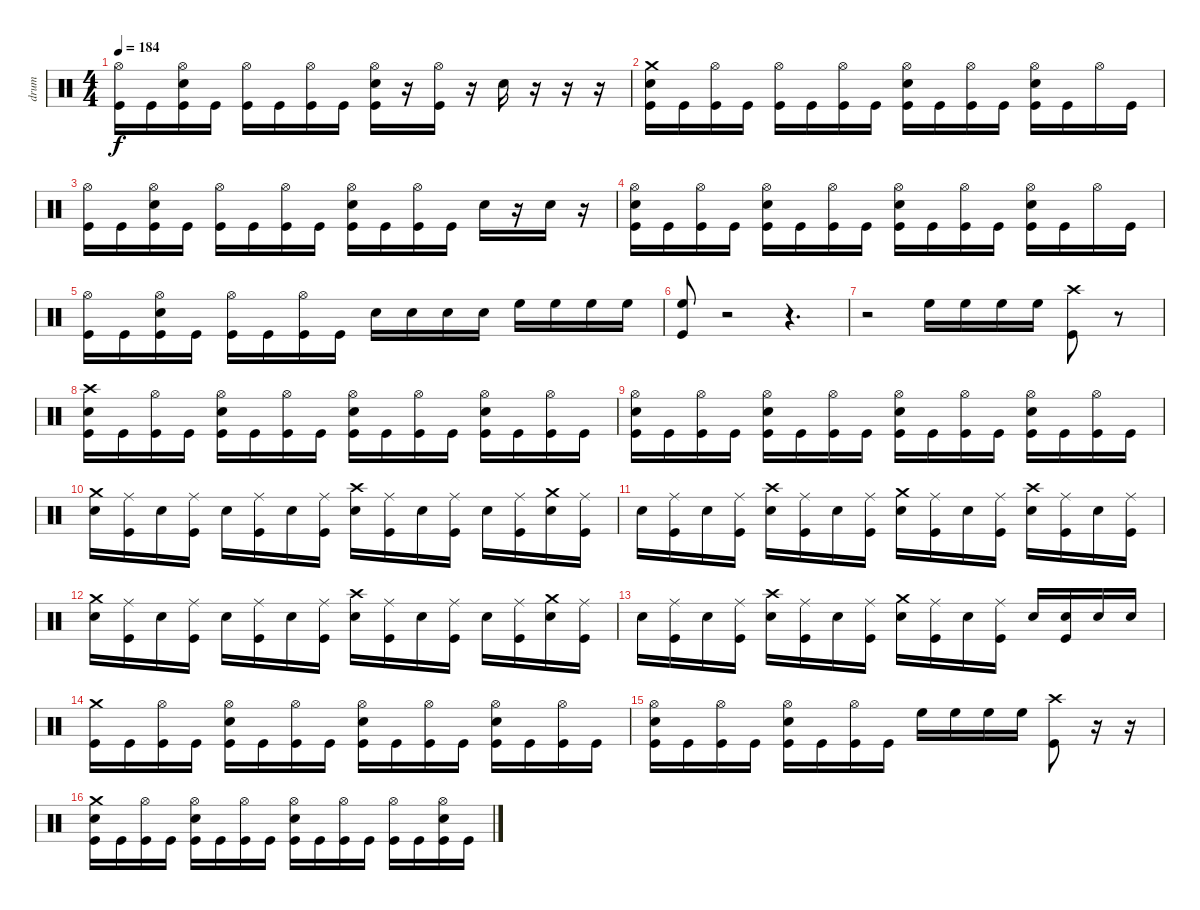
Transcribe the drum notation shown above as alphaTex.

\track ("drum" "drum") {instrument percussion}
\staff {score}
\articulation defaults
\ts (4 4)
\tempo 184
\clef neutral
\ks c
("Hi-Hat (open)" "Kick (hit)").16{dy f} "Kick (hit)".16 ("Hi-Hat (open)" "Electric Snare (hit)" "Kick (hit)").16 "Kick (hit)".16 ("Hi-Hat (open)" "Kick (hit)").16 "Kick (hit)".16 ("Hi-Hat (open)" "Kick (hit)").16 "Kick (hit)".16 ("Hi-Hat (open)" "Electric Snare (hit)" "Kick (hit)").16 r.16 ("Hi-Hat (open)" "Kick (hit)").16 r.16 "Electric Snare (hit)".16 r.16 r.16 r.16 |
("Crash medium (hit)" "Electric Snare (hit)" "Kick (hit)").16 "Kick (hit)".16 ("Hi-Hat (open)" "Kick (hit)").16 "Kick (hit)".16 ("Hi-Hat (open)" "Kick (hit)").16 "Kick (hit)".16 ("Hi-Hat (open)" "Kick (hit)").16 "Kick (hit)".16 ("Hi-Hat (open)" "Electric Snare (hit)" "Kick (hit)").16 "Kick (hit)".16 ("Hi-Hat (open)" "Kick (hit)").16 "Kick (hit)".16 ("Hi-Hat (open)" "Electric Snare (hit)" "Kick (hit)").16 "Kick (hit)".16 "Hi-Hat (open)".16 "Kick (hit)".16 |
("Hi-Hat (open)" "Kick (hit)").16 "Kick (hit)".16 ("Hi-Hat (open)" "Electric Snare (hit)" "Kick (hit)").16 "Kick (hit)".16 ("Hi-Hat (open)" "Kick (hit)").16 "Kick (hit)".16 ("Hi-Hat (open)" "Kick (hit)").16 "Kick (hit)".16 ("Hi-Hat (open)" "Electric Snare (hit)" "Kick (hit)").16 "Kick (hit)".16 ("Hi-Hat (open)" "Kick (hit)").16 "Kick (hit)".16 "Electric Snare (hit)".16 r.16 "Electric Snare (hit)".16 r.16 |
("Hi-Hat (open)" "Electric Snare (hit)" "Kick (hit)").16 "Kick (hit)".16 ("Hi-Hat (open)" "Kick (hit)").16 "Kick (hit)".16 ("Hi-Hat (open)" "Electric Snare (hit)" "Kick (hit)").16 "Kick (hit)".16 ("Hi-Hat (open)" "Kick (hit)").16 "Kick (hit)".16 ("Hi-Hat (open)" "Electric Snare (hit)" "Kick (hit)").16 "Kick (hit)".16 ("Hi-Hat (open)" "Kick (hit)").16 "Kick (hit)".16 ("Hi-Hat (open)" "Electric Snare (hit)" "Kick (hit)").16 "Kick (hit)".16 "Hi-Hat (open)".16 "Kick (hit)".16 |
("Hi-Hat (open)" "Kick (hit)").16 "Kick (hit)".16 ("Hi-Hat (open)" "Electric Snare (hit)" "Kick (hit)").16 "Kick (hit)".16 ("Hi-Hat (open)" "Kick (hit)").16 "Kick (hit)".16 ("Hi-Hat (open)" "Kick (hit)").16 "Kick (hit)".16 "Electric Snare (hit)".16 "Electric Snare (hit)".16 "Electric Snare (hit)".16 "Electric Snare (hit)".16 "High Floor Tom (hit)".16 "High Floor Tom (hit)".16 "High Floor Tom (hit)".16 "High Floor Tom (hit)".16 |
("High Floor Tom (hit)" "Kick (hit)").8 r.2 r.4{d} |
r.2 "High Floor Tom (hit)".16 "High Floor Tom (hit)".16 "High Floor Tom (hit)".16 "High Floor Tom (hit)".16 ("Crash high (hit)" "Kick (hit)").8 r.8 |
("Crash high (hit)" "Electric Snare (hit)" "Kick (hit)").16 "Kick (hit)".16 ("Hi-Hat (open)" "Kick (hit)").16 "Kick (hit)".16 ("Hi-Hat (open)" "Electric Snare (hit)" "Kick (hit)").16 "Kick (hit)".16 ("Hi-Hat (open)" "Kick (hit)").16 "Kick (hit)".16 ("Hi-Hat (open)" "Electric Snare (hit)" "Kick (hit)").16 "Kick (hit)".16 ("Hi-Hat (open)" "Kick (hit)").16 "Kick (hit)".16 ("Hi-Hat (open)" "Electric Snare (hit)" "Kick (hit)").16 "Kick (hit)".16 ("Hi-Hat (open)" "Kick (hit)").16 "Kick (hit)".16 |
("Hi-Hat (open)" "Electric Snare (hit)" "Kick (hit)").16 "Kick (hit)".16 ("Hi-Hat (open)" "Kick (hit)").16 "Kick (hit)".16 ("Hi-Hat (open)" "Electric Snare (hit)" "Kick (hit)").16 "Kick (hit)".16 ("Hi-Hat (open)" "Kick (hit)").16 "Kick (hit)".16 ("Hi-Hat (open)" "Electric Snare (hit)" "Kick (hit)").16 "Kick (hit)".16 ("Hi-Hat (open)" "Kick (hit)").16 "Kick (hit)".16 ("Hi-Hat (open)" "Electric Snare (hit)" "Kick (hit)").16 "Kick (hit)".16 ("Hi-Hat (open)" "Kick (hit)").16 "Kick (hit)".16 |
("Crash medium (hit)" "Electric Snare (hit)").16 ("Ride (middle)" "Kick (hit)").16 "Electric Snare (hit)".16 ("Ride (middle)" "Kick (hit)").16 "Electric Snare (hit)".16 ("Ride (middle)" "Kick (hit)").16 "Electric Snare (hit)".16 ("Ride (middle)" "Kick (hit)").16 ("Crash high (hit)" "Electric Snare (hit)").16 ("Ride (middle)" "Kick (hit)").16 "Electric Snare (hit)".16 ("Ride (middle)" "Kick (hit)").16 "Electric Snare (hit)".16 ("Ride (middle)" "Kick (hit)").16 ("Crash medium (hit)" "Electric Snare (hit)").16 ("Ride (middle)" "Kick (hit)").16 |
"Electric Snare (hit)".16 ("Ride (middle)" "Kick (hit)").16 "Electric Snare (hit)".16 ("Ride (middle)" "Kick (hit)").16 ("Crash high (hit)" "Electric Snare (hit)").16 ("Ride (middle)" "Kick (hit)").16 "Electric Snare (hit)".16 ("Ride (middle)" "Kick (hit)").16 ("Crash medium (hit)" "Electric Snare (hit)").16 ("Ride (middle)" "Kick (hit)").16 "Electric Snare (hit)".16 ("Ride (middle)" "Kick (hit)").16 ("Crash high (hit)" "Electric Snare (hit)").16 ("Ride (middle)" "Kick (hit)").16 "Electric Snare (hit)".16 ("Ride (middle)" "Kick (hit)").16 |
("Crash medium (hit)" "Electric Snare (hit)").16 ("Ride (middle)" "Kick (hit)").16 "Electric Snare (hit)".16 ("Ride (middle)" "Kick (hit)").16 "Electric Snare (hit)".16 ("Ride (middle)" "Kick (hit)").16 "Electric Snare (hit)".16 ("Ride (middle)" "Kick (hit)").16 ("Crash high (hit)" "Electric Snare (hit)").16 ("Ride (middle)" "Kick (hit)").16 "Electric Snare (hit)".16 ("Ride (middle)" "Kick (hit)").16 "Electric Snare (hit)".16 ("Ride (middle)" "Kick (hit)").16 ("Crash medium (hit)" "Electric Snare (hit)").16 ("Ride (middle)" "Kick (hit)").16 |
"Electric Snare (hit)".16 ("Ride (middle)" "Kick (hit)").16 "Electric Snare (hit)".16 ("Ride (middle)" "Kick (hit)").16 ("Crash high (hit)" "Electric Snare (hit)").16 ("Ride (middle)" "Kick (hit)").16 "Electric Snare (hit)".16 ("Ride (middle)" "Kick (hit)").16 ("Crash medium (hit)" "Electric Snare (hit)").16 ("Ride (middle)" "Kick (hit)").16 "Electric Snare (hit)".16 ("Ride (middle)" "Kick (hit)").16 "Electric Snare (hit)".16 ("Electric Snare (hit)" "Kick (hit)").16 "Electric Snare (hit)".16 "Electric Snare (hit)".16 |
("Crash medium (hit)" "Kick (hit)").16 "Kick (hit)".16 ("Hi-Hat (open)" "Kick (hit)").16 "Kick (hit)".16 ("Hi-Hat (open)" "Electric Snare (hit)" "Kick (hit)").16 "Kick (hit)".16 ("Hi-Hat (open)" "Kick (hit)").16 "Kick (hit)".16 ("Hi-Hat (open)" "Electric Snare (hit)" "Kick (hit)").16 "Kick (hit)".16 ("Hi-Hat (open)" "Kick (hit)").16 "Kick (hit)".16 ("Hi-Hat (open)" "Electric Snare (hit)" "Kick (hit)").16 "Kick (hit)".16 ("Hi-Hat (open)" "Kick (hit)").16 "Kick (hit)".16 |
("Hi-Hat (open)" "Electric Snare (hit)" "Kick (hit)").16 "Kick (hit)".16 ("Hi-Hat (open)" "Kick (hit)").16 "Kick (hit)".16 ("Hi-Hat (open)" "Electric Snare (hit)" "Kick (hit)").16 "Kick (hit)".16 ("Hi-Hat (open)" "Kick (hit)").16 "Kick (hit)".16 "High Floor Tom (hit)".16 "High Floor Tom (hit)".16 "High Floor Tom (hit)".16 "High Floor Tom (hit)".16 ("Crash high (hit)" "Kick (hit)").8 r.16 r.16 |
("Crash medium (hit)" "Electric Snare (hit)" "Kick (hit)").16 "Kick (hit)".16 ("Hi-Hat (open)" "Kick (hit)").16 "Kick (hit)".16 ("Hi-Hat (open)" "Electric Snare (hit)" "Kick (hit)").16 "Kick (hit)".16 ("Hi-Hat (open)" "Kick (hit)").16 "Kick (hit)".16 ("Hi-Hat (open)" "Electric Snare (hit)" "Kick (hit)").16 "Kick (hit)".16 ("Hi-Hat (open)" "Kick (hit)").16 "Kick (hit)".16 ("Hi-Hat (open)" "Kick (hit)").16 "Kick (hit)".16 ("Hi-Hat (open)" "Electric Snare (hit)" "Kick (hit)").16 "Kick (hit)".16
